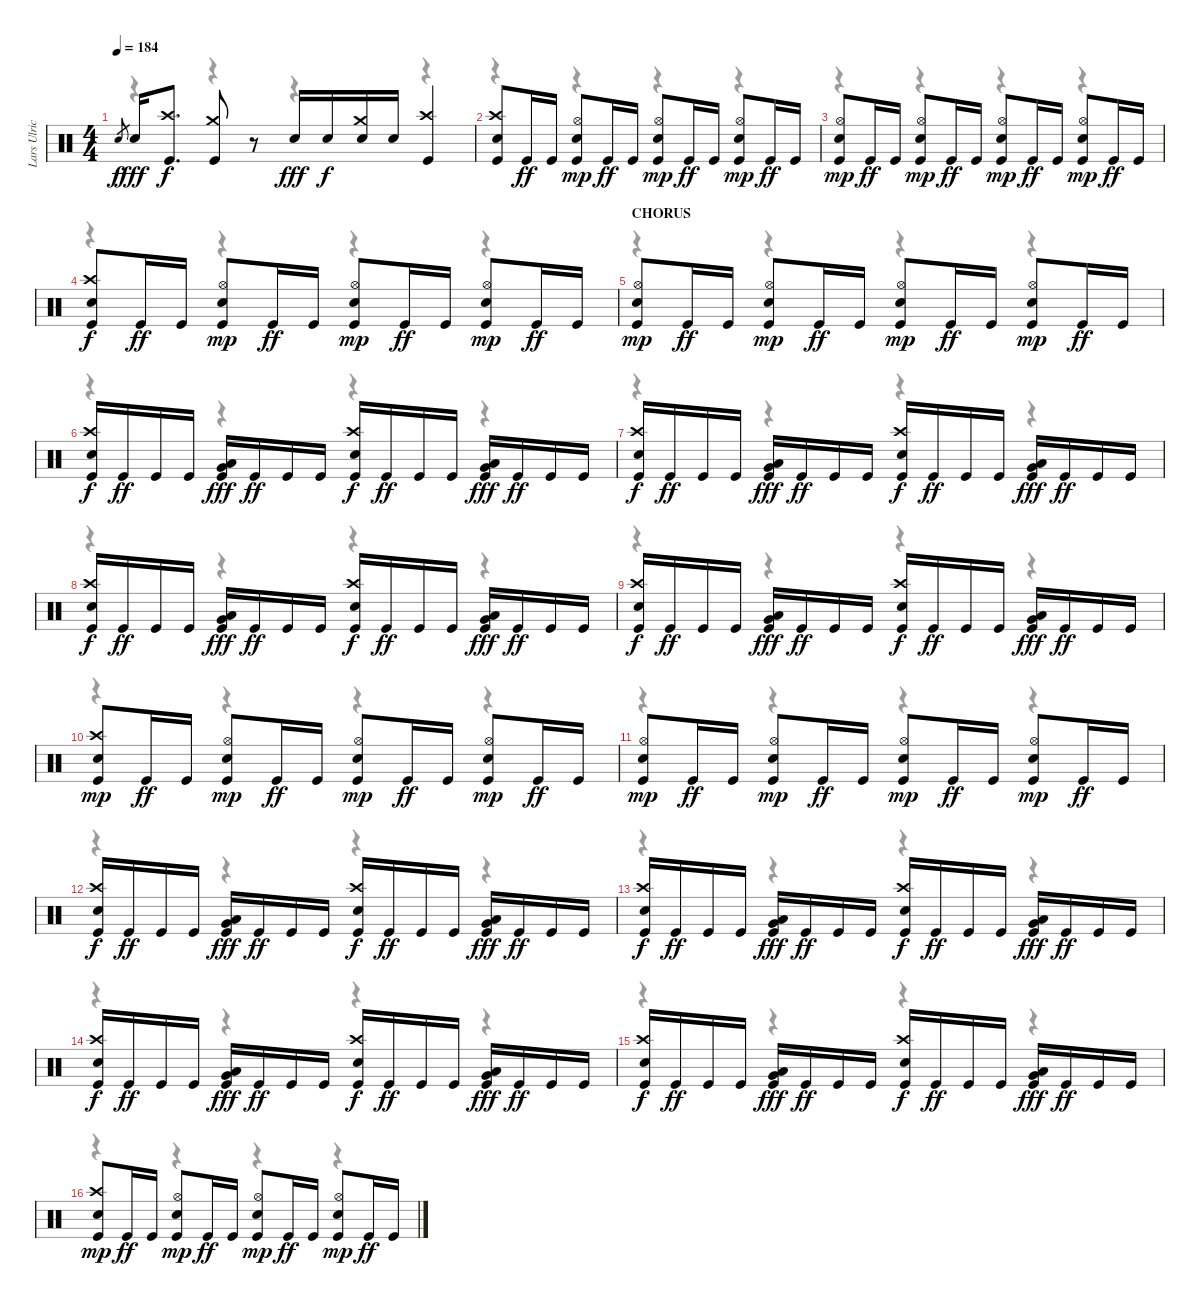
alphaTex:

\track ("Lars Ulrich" "Lars Ulric") {instrument percussion}
\staff {score}
\articulation defaults
\voice
\ts (4 4)
\tempo 184
\clef neutral
\ks c "Snare (hit)".8{gr dy f} "Snare (hit) 2".16{dy fff}
("Crash high (hit)" "Kick (hit)").8{d dy f} ("Crash medium (hit)" "Kick (hit)").8 r.8 "Snare (hit) 2".16{dy fff} "Snare (hit) 2".16{dy f} ("Crash medium (hit)" "Snare (hit) 2").16 "Snare (hit) 2".16 ("Crash high (hit)" "Kick (hit)").4 |
("Crash high (hit)" "Snare (hit) 2" "Kick (hit)").8 "Kick (hit)".16{dy ff} "Kick (hit)".16 ("Hi-Hat (open)" "Snare (hit) 2" "Kick (hit)").8{dy mp} "Kick (hit)".16{dy ff} "Kick (hit)".16 ("Hi-Hat (open)" "Snare (hit) 2" "Kick (hit)").8{dy mp} "Kick (hit)".16{dy ff} "Kick (hit)".16 ("Hi-Hat (open)" "Snare (hit) 2" "Kick (hit)").8{dy mp} "Kick (hit)".16{dy ff} "Kick (hit)".16 |
("Hi-Hat (open)" "Snare (hit) 2" "Kick (hit)").8{dy mp} "Kick (hit)".16{dy ff} "Kick (hit)".16 ("Hi-Hat (open)" "Snare (hit) 2" "Kick (hit)").8{dy mp} "Kick (hit)".16{dy ff} "Kick (hit)".16 ("Hi-Hat (open)" "Snare (hit) 2" "Kick (hit)").8{dy mp} "Kick (hit)".16{dy ff} "Kick (hit)".16 ("Hi-Hat (open)" "Snare (hit) 2" "Kick (hit)").8{dy mp} "Kick (hit)".16{dy ff} "Kick (hit)".16 |
("Crash high (hit)" "Snare (hit) 2" "Kick (hit)").8{dy f} "Kick (hit)".16{dy ff} "Kick (hit)".16 ("Hi-Hat (open)" "Snare (hit) 2" "Kick (hit)").8{dy mp} "Kick (hit)".16{dy ff} "Kick (hit)".16 ("Hi-Hat (open)" "Snare (hit) 2" "Kick (hit)").8{dy mp} "Kick (hit)".16{dy ff} "Kick (hit)".16 ("Hi-Hat (open)" "Snare (hit) 2" "Kick (hit)").8{dy mp} "Kick (hit)".16{dy ff} "Kick (hit)".16 |
\section ("" "CHORUS")
("Hi-Hat (open)" "Snare (hit) 2" "Kick (hit)").8{dy mp} "Kick (hit)".16{dy ff} "Kick (hit)".16 ("Hi-Hat (open)" "Snare (hit) 2" "Kick (hit)").8{dy mp} "Kick (hit)".16{dy ff} "Kick (hit)".16 ("Hi-Hat (open)" "Snare (hit) 2" "Kick (hit)").8{dy mp} "Kick (hit)".16{dy ff} "Kick (hit)".16 ("Hi-Hat (open)" "Snare (hit) 2" "Kick (hit)").8{dy mp} "Kick (hit)".16{dy ff} "Kick (hit)".16 |
("Crash high (hit)" "Snare (hit) 2" "Kick (hit)").16{dy f} "Kick (hit)".16{dy ff} "Kick (hit)".16 "Kick (hit)".16 ("Low Tom (hit)" "Very Low Tom (hit)" "Kick (hit)").16{dy fff} "Kick (hit)".16{dy ff} "Kick (hit)".16 "Kick (hit)".16 ("Crash high (hit)" "Snare (hit) 2" "Kick (hit)").16{dy f} "Kick (hit)".16{dy ff} "Kick (hit)".16 "Kick (hit)".16 ("Low Tom (hit)" "Very Low Tom (hit)" "Kick (hit)").16{dy fff} "Kick (hit)".16{dy ff} "Kick (hit)".16 "Kick (hit)".16 |
("Crash high (hit)" "Snare (hit) 2" "Kick (hit)").16{dy f} "Kick (hit)".16{dy ff} "Kick (hit)".16 "Kick (hit)".16 ("Low Tom (hit)" "Very Low Tom (hit)" "Kick (hit)").16{dy fff} "Kick (hit)".16{dy ff} "Kick (hit)".16 "Kick (hit)".16 ("Crash high (hit)" "Snare (hit) 2" "Kick (hit)").16{dy f} "Kick (hit)".16{dy ff} "Kick (hit)".16 "Kick (hit)".16 ("Low Tom (hit)" "Very Low Tom (hit)" "Kick (hit)").16{dy fff} "Kick (hit)".16{dy ff} "Kick (hit)".16 "Kick (hit)".16 |
("Crash high (hit)" "Snare (hit) 2" "Kick (hit)").16{dy f} "Kick (hit)".16{dy ff} "Kick (hit)".16 "Kick (hit)".16 ("Low Tom (hit)" "Very Low Tom (hit)" "Kick (hit)").16{dy fff} "Kick (hit)".16{dy ff} "Kick (hit)".16 "Kick (hit)".16 ("Crash high (hit)" "Snare (hit) 2" "Kick (hit)").16{dy f} "Kick (hit)".16{dy ff} "Kick (hit)".16 "Kick (hit)".16 ("Low Tom (hit)" "Very Low Tom (hit)" "Kick (hit)").16{dy fff} "Kick (hit)".16{dy ff} "Kick (hit)".16 "Kick (hit)".16 |
("Crash high (hit)" "Snare (hit) 2" "Kick (hit)").16{dy f} "Kick (hit)".16{dy ff} "Kick (hit)".16 "Kick (hit)".16 ("Low Tom (hit)" "Very Low Tom (hit)" "Kick (hit)").16{dy fff} "Kick (hit)".16{dy ff} "Kick (hit)".16 "Kick (hit)".16 ("Crash high (hit)" "Snare (hit) 2" "Kick (hit)").16{dy f} "Kick (hit)".16{dy ff} "Kick (hit)".16 "Kick (hit)".16 ("Low Tom (hit)" "Very Low Tom (hit)" "Kick (hit)").16{dy fff} "Kick (hit)".16{dy ff} "Kick (hit)".16 "Kick (hit)".16 |
("Crash high (hit)" "Snare (hit) 2" "Kick (hit)").8{dy mp} "Kick (hit)".16{dy ff} "Kick (hit)".16 ("Hi-Hat (open)" "Snare (hit) 2" "Kick (hit)").8{dy mp} "Kick (hit)".16{dy ff} "Kick (hit)".16 ("Hi-Hat (open)" "Snare (hit) 2" "Kick (hit)").8{dy mp} "Kick (hit)".16{dy ff} "Kick (hit)".16 ("Hi-Hat (open)" "Snare (hit) 2" "Kick (hit)").8{dy mp} "Kick (hit)".16{dy ff} "Kick (hit)".16 |
("Hi-Hat (open)" "Snare (hit) 2" "Kick (hit)").8{dy mp} "Kick (hit)".16{dy ff} "Kick (hit)".16 ("Hi-Hat (open)" "Snare (hit) 2" "Kick (hit)").8{dy mp} "Kick (hit)".16{dy ff} "Kick (hit)".16 ("Hi-Hat (open)" "Snare (hit) 2" "Kick (hit)").8{dy mp} "Kick (hit)".16{dy ff} "Kick (hit)".16 ("Hi-Hat (open)" "Snare (hit) 2" "Kick (hit)").8{dy mp} "Kick (hit)".16{dy ff} "Kick (hit)".16 |
("Crash high (hit)" "Snare (hit) 2" "Kick (hit)").16{dy f} "Kick (hit)".16{dy ff} "Kick (hit)".16 "Kick (hit)".16 ("Low Tom (hit)" "Very Low Tom (hit)" "Kick (hit)").16{dy fff} "Kick (hit)".16{dy ff} "Kick (hit)".16 "Kick (hit)".16 ("Crash high (hit)" "Snare (hit) 2" "Kick (hit)").16{dy f} "Kick (hit)".16{dy ff} "Kick (hit)".16 "Kick (hit)".16 ("Low Tom (hit)" "Very Low Tom (hit)" "Kick (hit)").16{dy fff} "Kick (hit)".16{dy ff} "Kick (hit)".16 "Kick (hit)".16 |
("Crash high (hit)" "Snare (hit) 2" "Kick (hit)").16{dy f} "Kick (hit)".16{dy ff} "Kick (hit)".16 "Kick (hit)".16 ("Low Tom (hit)" "Very Low Tom (hit)" "Kick (hit)").16{dy fff} "Kick (hit)".16{dy ff} "Kick (hit)".16 "Kick (hit)".16 ("Crash high (hit)" "Snare (hit) 2" "Kick (hit)").16{dy f} "Kick (hit)".16{dy ff} "Kick (hit)".16 "Kick (hit)".16 ("Low Tom (hit)" "Very Low Tom (hit)" "Kick (hit)").16{dy fff} "Kick (hit)".16{dy ff} "Kick (hit)".16 "Kick (hit)".16 |
("Crash high (hit)" "Snare (hit) 2" "Kick (hit)").16{dy f} "Kick (hit)".16{dy ff} "Kick (hit)".16 "Kick (hit)".16 ("Low Tom (hit)" "Very Low Tom (hit)" "Kick (hit)").16{dy fff} "Kick (hit)".16{dy ff} "Kick (hit)".16 "Kick (hit)".16 ("Crash high (hit)" "Snare (hit) 2" "Kick (hit)").16{dy f} "Kick (hit)".16{dy ff} "Kick (hit)".16 "Kick (hit)".16 ("Low Tom (hit)" "Very Low Tom (hit)" "Kick (hit)").16{dy fff} "Kick (hit)".16{dy ff} "Kick (hit)".16 "Kick (hit)".16 |
("Crash high (hit)" "Snare (hit) 2" "Kick (hit)").16{dy f} "Kick (hit)".16{dy ff} "Kick (hit)".16 "Kick (hit)".16 ("Low Tom (hit)" "Very Low Tom (hit)" "Kick (hit)").16{dy fff} "Kick (hit)".16{dy ff} "Kick (hit)".16 "Kick (hit)".16 ("Crash high (hit)" "Snare (hit) 2" "Kick (hit)").16{dy f} "Kick (hit)".16{dy ff} "Kick (hit)".16 "Kick (hit)".16 ("Low Tom (hit)" "Very Low Tom (hit)" "Kick (hit)").16{dy fff} "Kick (hit)".16{dy ff} "Kick (hit)".16 "Kick (hit)".16 |
("Crash high (hit)" "Snare (hit) 2" "Kick (hit)").8{dy mp} "Kick (hit)".16{dy ff} "Kick (hit)".16 ("Hi-Hat (open)" "Snare (hit) 2" "Kick (hit)").8{dy mp} "Kick (hit)".16{dy ff} "Kick (hit)".16 ("Hi-Hat (open)" "Snare (hit) 2" "Kick (hit)").8{dy mp} "Kick (hit)".16{dy ff} "Kick (hit)".16 ("Hi-Hat (open)" "Snare (hit) 2" "Kick (hit)").8{dy mp} "Kick (hit)".16{dy ff} "Kick (hit)".16
\voice
\clef neutral
\ottava regular
\simile none
\ks c
r.4{dy f} r.4 r.4 r.4 |
r.4 r.4 r.4 r.4 |
r.4 r.4 r.4 r.4 |
r.4 r.4 r.4 r.4 |
r.4 r.4 r.4 r.4 |
r.4 r.4 r.4 r.4 |
r.4 r.4 r.4 r.4 |
r.4 r.4 r.4 r.4 |
r.4 r.4 r.4 r.4 |
r.4 r.4 r.4 r.4 |
r.4 r.4 r.4 r.4 |
r.4 r.4 r.4 r.4 |
r.4 r.4 r.4 r.4 |
r.4 r.4 r.4 r.4 |
r.4 r.4 r.4 r.4 |
r.4 r.4 r.4 r.4
